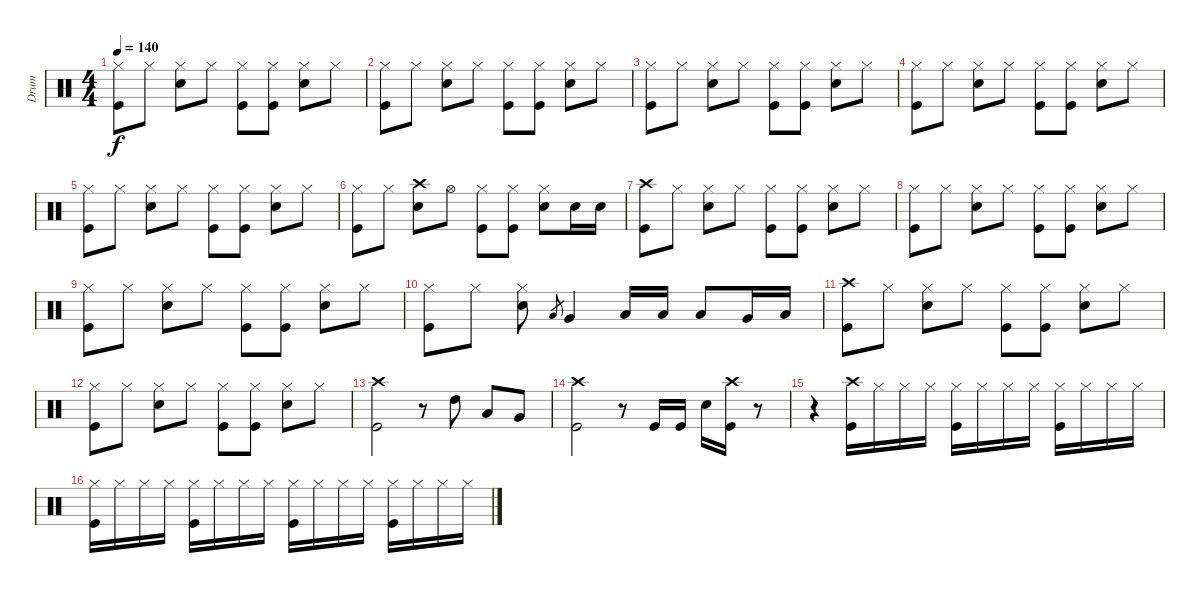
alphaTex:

\track ("Drum" "Drum") {instrument percussion}
\staff {score}
\articulation defaults
\ts (4 4)
\tempo 140
\clef neutral
\ks c
("Hi-Hat (closed)" "Kick (hit)").8{dy f} "Hi-Hat (closed)".8 ("Hi-Hat (closed)" "Snare (hit) 2").8 "Hi-Hat (closed)".8 ("Hi-Hat (closed)" "Kick (hit)").8 ("Hi-Hat (closed)" "Kick (hit)").8 ("Hi-Hat (closed)" "Snare (hit) 2").8 "Hi-Hat (closed)".8 |
("Hi-Hat (closed)" "Kick (hit)").8 "Hi-Hat (closed)".8 ("Hi-Hat (closed)" "Snare (hit) 2").8 "Hi-Hat (closed)".8 ("Hi-Hat (closed)" "Kick (hit)").8 ("Hi-Hat (closed)" "Kick (hit)").8 ("Hi-Hat (closed)" "Snare (hit) 2").8 "Hi-Hat (closed)".8 |
("Hi-Hat (closed)" "Kick (hit)").8 "Hi-Hat (closed)".8 ("Hi-Hat (closed)" "Snare (hit) 2").8 "Hi-Hat (closed)".8 ("Hi-Hat (closed)" "Kick (hit)").8 ("Hi-Hat (closed)" "Kick (hit)").8 ("Hi-Hat (closed)" "Snare (hit) 2").8 "Hi-Hat (closed)".8 |
("Hi-Hat (closed)" "Kick (hit)").8 "Hi-Hat (closed)".8 ("Hi-Hat (closed)" "Snare (hit) 2").8 "Hi-Hat (closed)".8 ("Hi-Hat (closed)" "Kick (hit)").8 ("Hi-Hat (closed)" "Kick (hit)").8 ("Hi-Hat (closed)" "Snare (hit) 2").8 "Hi-Hat (closed)".8 |
("Hi-Hat (closed)" "Kick (hit)").8 "Hi-Hat (closed)".8 ("Hi-Hat (closed)" "Snare (hit) 2").8 "Hi-Hat (closed)".8 ("Hi-Hat (closed)" "Kick (hit)").8 ("Hi-Hat (closed)" "Kick (hit)").8 ("Hi-Hat (closed)" "Snare (hit) 2").8 "Hi-Hat (closed)".8 |
("Hi-Hat (closed)" "Kick (hit)").8 "Hi-Hat (closed)".8 ("Crash high (hit)" "Snare (hit) 2").8 "Hi-Hat (open)".8 ("Hi-Hat (closed)" "Kick (hit)").8 ("Hi-Hat (closed)" "Kick (hit)").8 ("Hi-Hat (closed)" "Snare (hit) 2").8 "Snare (hit) 2".16 "Snare (hit) 2".16 |
("Crash high (hit)" "Kick (hit)").8 "Hi-Hat (closed)".8 ("Hi-Hat (closed)" "Snare (hit) 2").8 "Hi-Hat (closed)".8 ("Hi-Hat (closed)" "Kick (hit)").8 ("Hi-Hat (closed)" "Kick (hit)").8 ("Hi-Hat (closed)" "Snare (hit) 2").8 "Hi-Hat (closed)".8 |
("Hi-Hat (closed)" "Kick (hit)").8 "Hi-Hat (closed)".8 ("Hi-Hat (closed)" "Snare (hit) 2").8 "Hi-Hat (closed)".8 ("Hi-Hat (closed)" "Kick (hit)").8 ("Hi-Hat (closed)" "Kick (hit)").8 ("Hi-Hat (closed)" "Snare (hit) 2").8 "Hi-Hat (closed)".8 |
("Hi-Hat (closed)" "Kick (hit)").8 "Hi-Hat (closed)".8 ("Hi-Hat (closed)" "Snare (hit) 2").8 "Hi-Hat (closed)".8 ("Hi-Hat (closed)" "Kick (hit)").8 ("Hi-Hat (closed)" "Kick (hit)").8 ("Hi-Hat (closed)" "Snare (hit) 2").8 "Hi-Hat (closed)".8 |
("Hi-Hat (closed)" "Kick (hit)").8 "Hi-Hat (closed)".8 ("Hi-Hat (closed)" "Snare (hit) 2").8 "Low Floor Tom (hit)".8{gr} "Very Low Tom (hit)".4 "Low Floor Tom (hit)".16 "Low Floor Tom (hit)".16 "Low Tom (hit)".8 "Very Low Tom (hit)".16 "Low Floor Tom (hit)".16 |
("Crash high (hit)" "Kick (hit)").8 "Hi-Hat (closed)".8 ("Hi-Hat (closed)" "Snare (hit) 2").8 "Hi-Hat (closed)".8 ("Hi-Hat (closed)" "Kick (hit)").8 ("Hi-Hat (closed)" "Kick (hit)").8 ("Hi-Hat (closed)" "Snare (hit) 2").8 "Hi-Hat (closed)".8 |
("Hi-Hat (closed)" "Kick (hit)").8 "Hi-Hat (closed)".8 ("Hi-Hat (closed)" "Snare (hit) 2").8 "Hi-Hat (closed)".8 ("Hi-Hat (closed)" "Kick (hit)").8 ("Hi-Hat (closed)" "Kick (hit)").8 ("Hi-Hat (closed)" "Snare (hit) 2").8 "Hi-Hat (closed)".8 |
("Crash high (hit)" "Kick (hit)").2 r.8 "High Tom (hit)".8 "Low Tom (hit)".8 "Very Low Tom (hit)".8 |
("Kick (hit)" "Crash high (hit)").2 r.8 "Kick (hit)".16 "Kick (hit)".16 "Electric Snare (hit)".16 ("Kick (hit)" "Crash high (hit)").16 r.8 |
r.4 ("Crash high (hit)" "Kick (hit)").16 "Hi-Hat (closed)".16 "Hi-Hat (closed)".16 "Hi-Hat (closed)".16 ("Hi-Hat (closed)" "Kick (hit)").16 "Hi-Hat (closed)".16 "Hi-Hat (closed)".16 "Hi-Hat (closed)".16 ("Hi-Hat (closed)" "Kick (hit)").16 "Hi-Hat (closed)".16 "Hi-Hat (closed)".16 "Hi-Hat (closed)".16 |
("Hi-Hat (closed)" "Kick (hit)").16 "Hi-Hat (closed)".16 "Hi-Hat (closed)".16 "Hi-Hat (closed)".16 ("Hi-Hat (closed)" "Kick (hit)").16 "Hi-Hat (closed)".16 "Hi-Hat (closed)".16 "Hi-Hat (closed)".16 ("Hi-Hat (closed)" "Kick (hit)").16 "Hi-Hat (closed)".16 "Hi-Hat (closed)".16 "Hi-Hat (closed)".16 ("Hi-Hat (closed)" "Kick (hit)").16 "Hi-Hat (closed)".16 "Hi-Hat (closed)".16 "Hi-Hat (closed)".16
